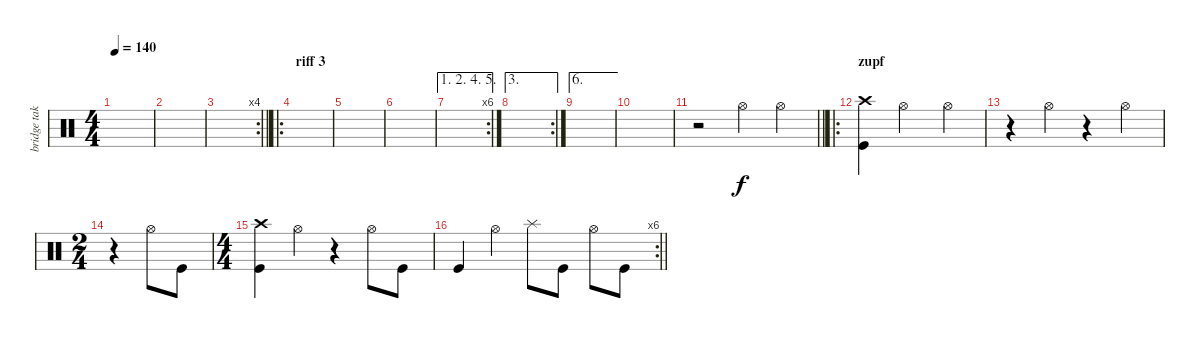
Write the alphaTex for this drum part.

\track ("bridge takt" "bridge tak") {instrument percussion}
\staff {score}
\articulation defaults
\ts (4 4)
\tempo 140
\clef neutral
\ks c
|
|
\rc 4
\barLineRight lightlight
|
\ro
\section ("" "riff 3")
|
|
|
\ae (1 2 4 5)
\rc 6
|
\ae 3
\rc 2
|
\ae 6
|
|
\barLineRight lightlight
r.2 "Hi-Hat (open)".4 "Hi-Hat (open)".4 |
\ro
\section ("" "zupf")
("Crash high (hit)" "Kick (hit)").4 "Hi-Hat (open)".2 "Hi-Hat (open)".4 |
r.4 "Hi-Hat (open)".4 r.4 "Hi-Hat (open)".4 |
\ts (2 4)
r.4 "Hi-Hat (open)".8 "Kick (hit)".8 |
\ts (4 4)
("Crash high (hit)" "Kick (hit)").4 "Hi-Hat (open)".4 r.4 "Hi-Hat (open)".8 "Kick (hit)".8 |
\rc 6
\barLineRight lightlight "Kick (hit)".4 "Hi-Hat (open)".4 "Splash (hit)".8 "Kick (hit)".8 "Hi-Hat (open)".8 "Kick (hit)".8
